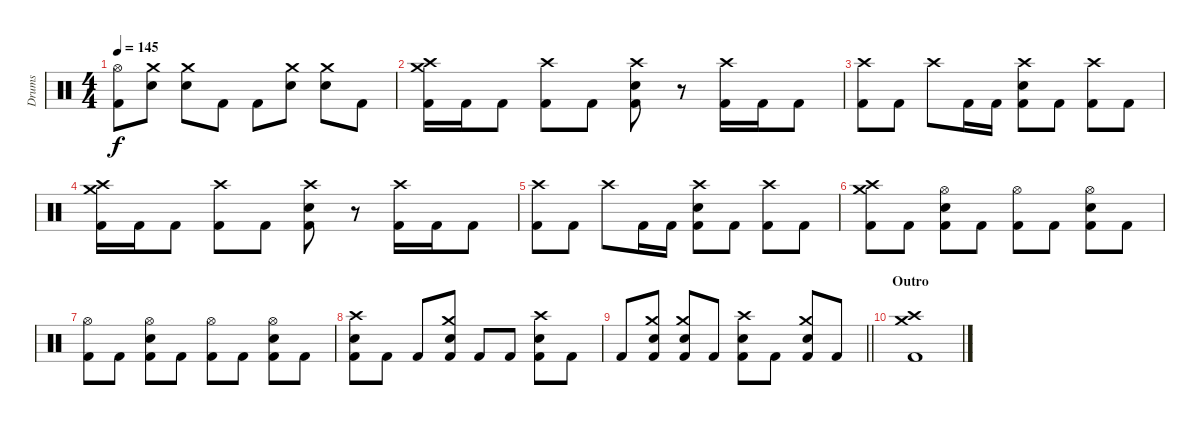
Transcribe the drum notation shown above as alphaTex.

\track ("Drums" "Drums") {instrument percussion}
\staff {score}
\articulation defaults
\ts (4 4)
\tempo 145
\clef neutral
\ks c
("Hi-Hat (open)" "Kick (hit) 2").8{dy f} ("Crash medium (hit)" "Electric Snare (hit)").8 ("Crash medium (hit)" "Electric Snare (hit)").8 "Kick (hit) 2".8 "Kick (hit) 2".8 ("Crash medium (hit)" "Electric Snare (hit)").8 ("Crash medium (hit)" "Electric Snare (hit)").8 "Kick (hit) 2".8 |
("Crash high (hit)" "Crash medium (hit)" "Kick (hit) 2").16 "Kick (hit) 2".16 "Kick (hit) 2".8 ("Crash high (hit)" "Kick (hit) 2").8 "Kick (hit) 2".8 ("Crash high (hit)" "Electric Snare (hit)" "Kick (hit) 2").8 r.8 ("Crash high (hit)" "Kick (hit) 2").16 "Kick (hit) 2".16 "Kick (hit) 2".8 |
("Crash high (hit)" "Kick (hit) 2").8 "Kick (hit) 2".8 "Crash high (hit)".8 "Kick (hit) 2".16 "Kick (hit) 2".16 ("Crash high (hit)" "Electric Snare (hit)" "Kick (hit) 2").8 "Kick (hit) 2".8 ("Crash high (hit)" "Kick (hit) 2").8 "Kick (hit) 2".8 |
("Crash high (hit)" "Crash medium (hit)" "Kick (hit) 2").16 "Kick (hit) 2".16 "Kick (hit) 2".8 ("Crash high (hit)" "Kick (hit) 2").8 "Kick (hit) 2".8 ("Crash high (hit)" "Electric Snare (hit)" "Kick (hit) 2").8 r.8 ("Crash high (hit)" "Kick (hit) 2").16 "Kick (hit) 2".16 "Kick (hit) 2".8 |
("Crash high (hit)" "Kick (hit) 2").8 "Kick (hit) 2".8 "Crash high (hit)".8 "Kick (hit) 2".16 "Kick (hit) 2".16 ("Crash high (hit)" "Electric Snare (hit)" "Kick (hit) 2").8 "Kick (hit) 2".8 ("Crash high (hit)" "Kick (hit) 2").8 "Kick (hit) 2".8 |
("Crash high (hit)" "Crash medium (hit)" "Kick (hit) 2").8 "Kick (hit) 2".8 ("Hi-Hat (open)" "Electric Snare (hit)" "Kick (hit) 2").8 "Kick (hit) 2".8 ("Hi-Hat (open)" "Kick (hit) 2").8 "Kick (hit) 2".8 ("Hi-Hat (open)" "Electric Snare (hit)" "Kick (hit) 2").8 "Kick (hit) 2".8 |
("Hi-Hat (open)" "Kick (hit) 2").8 "Kick (hit) 2".8 ("Hi-Hat (open)" "Electric Snare (hit)" "Kick (hit) 2").8 "Kick (hit) 2".8 ("Hi-Hat (open)" "Kick (hit) 2").8 "Kick (hit) 2".8 ("Hi-Hat (open)" "Electric Snare (hit)" "Kick (hit) 2").8 "Kick (hit) 2".8 |
("Crash high (hit)" "Electric Snare (hit)" "Kick (hit) 2").8 "Kick (hit) 2".8 "Kick (hit) 2".8 ("Crash medium (hit)" "Electric Snare (hit)" "Kick (hit) 2").8 "Kick (hit) 2".8 "Kick (hit) 2".8 ("Crash high (hit)" "Electric Snare (hit)" "Kick (hit) 2").8 "Kick (hit) 2".8 |
\barLineRight lightlight "Kick (hit) 2".8
("Crash medium (hit)" "Electric Snare (hit)" "Kick (hit) 2").8 ("Crash medium (hit)" "Electric Snare (hit)" "Kick (hit) 2").8 "Kick (hit) 2".8 ("Crash high (hit)" "Electric Snare (hit)" "Kick (hit) 2").8 "Kick (hit) 2".8 ("Crash medium (hit)" "Electric Snare (hit)" "Kick (hit) 2").8 "Kick (hit) 2".8 |
\section ("" "Outro")
("Crash medium (hit)" "Crash high (hit)" "Kick (hit) 2").1
